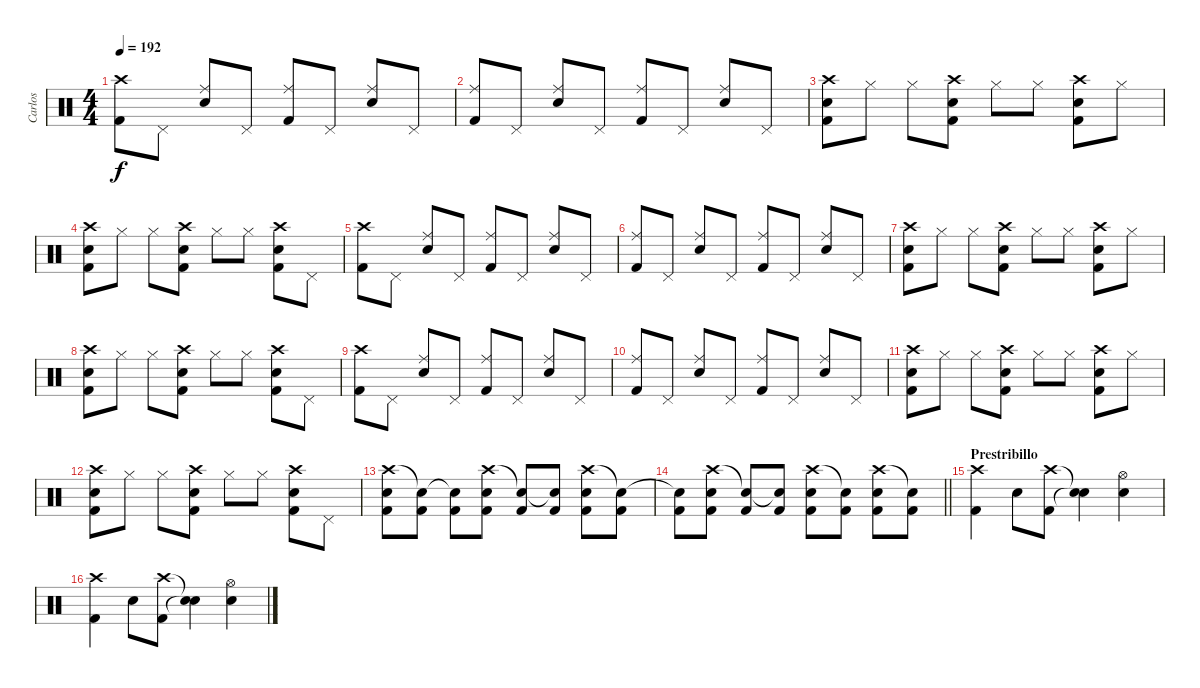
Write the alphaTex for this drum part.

\track ("Carlos" "Carlos") {instrument percussion}
\staff {score}
\articulation defaults
\ts (4 4)
\tempo 192
\clef neutral
\ks c
("Crash high (hit)" "Kick (hit) 2").8{dy f} "Pedal Hi-Hat (hit)".8 ("Ride (middle)" "Snare (hit) 2").8 "Pedal Hi-Hat (hit)".8 ("Ride (middle)" "Kick (hit) 2").8 "Pedal Hi-Hat (hit)".8 ("Ride (middle)" "Snare (hit) 2").8 "Pedal Hi-Hat (hit)".8 |
("Ride (middle)" "Kick (hit) 2").8 "Pedal Hi-Hat (hit)".8 ("Ride (middle)" "Snare (hit) 2").8 "Pedal Hi-Hat (hit)".8 ("Ride (middle)" "Kick (hit) 2").8 "Pedal Hi-Hat (hit)".8 ("Ride (middle)" "Snare (hit) 2").8 "Pedal Hi-Hat (hit)".8 |
("Crash high (hit)" "Kick (hit) 2" "Snare (hit) 2").8 "Hi-Hat (closed)".8 "Hi-Hat (closed)".8 ("Crash high (hit)" "Kick (hit) 2" "Snare (hit) 2").8 "Hi-Hat (closed)".8 "Hi-Hat (closed)".8 ("Crash high (hit)" "Kick (hit) 2" "Snare (hit) 2").8 "Hi-Hat (closed)".8 |
("Crash high (hit)" "Kick (hit) 2" "Snare (hit) 2").8 "Hi-Hat (closed)".8 "Hi-Hat (closed)".8 ("Crash high (hit)" "Kick (hit) 2" "Snare (hit) 2").8 "Hi-Hat (closed)".8 "Hi-Hat (closed)".8 ("Crash high (hit)" "Kick (hit) 2" "Snare (hit) 2").8 "Pedal Hi-Hat (hit)".8 |
("Crash high (hit)" "Kick (hit) 2").8 "Pedal Hi-Hat (hit)".8 ("Ride (middle)" "Snare (hit) 2").8 "Pedal Hi-Hat (hit)".8 ("Ride (middle)" "Kick (hit) 2").8 "Pedal Hi-Hat (hit)".8 ("Ride (middle)" "Snare (hit) 2").8 "Pedal Hi-Hat (hit)".8 |
("Ride (middle)" "Kick (hit) 2").8 "Pedal Hi-Hat (hit)".8 ("Ride (middle)" "Snare (hit) 2").8 "Pedal Hi-Hat (hit)".8 ("Ride (middle)" "Kick (hit) 2").8 "Pedal Hi-Hat (hit)".8 ("Ride (middle)" "Snare (hit) 2").8 "Pedal Hi-Hat (hit)".8 |
("Crash high (hit)" "Kick (hit) 2" "Snare (hit) 2").8 "Hi-Hat (closed)".8 "Hi-Hat (closed)".8 ("Crash high (hit)" "Kick (hit) 2" "Snare (hit) 2").8 "Hi-Hat (closed)".8 "Hi-Hat (closed)".8 ("Crash high (hit)" "Kick (hit) 2" "Snare (hit) 2").8 "Hi-Hat (closed)".8 |
("Crash high (hit)" "Kick (hit) 2" "Snare (hit) 2").8 "Hi-Hat (closed)".8 "Hi-Hat (closed)".8 ("Crash high (hit)" "Kick (hit) 2" "Snare (hit) 2").8 "Hi-Hat (closed)".8 "Hi-Hat (closed)".8 ("Crash high (hit)" "Kick (hit) 2" "Snare (hit) 2").8 "Pedal Hi-Hat (hit)".8 |
("Crash high (hit)" "Kick (hit) 2").8 "Pedal Hi-Hat (hit)".8 ("Ride (middle)" "Snare (hit) 2").8 "Pedal Hi-Hat (hit)".8 ("Ride (middle)" "Kick (hit) 2").8 "Pedal Hi-Hat (hit)".8 ("Ride (middle)" "Snare (hit) 2").8 "Pedal Hi-Hat (hit)".8 |
("Ride (middle)" "Kick (hit) 2").8 "Pedal Hi-Hat (hit)".8 ("Ride (middle)" "Snare (hit) 2").8 "Pedal Hi-Hat (hit)".8 ("Ride (middle)" "Kick (hit) 2").8 "Pedal Hi-Hat (hit)".8 ("Ride (middle)" "Snare (hit) 2").8 "Pedal Hi-Hat (hit)".8 |
("Crash high (hit)" "Kick (hit) 2" "Snare (hit) 2").8 "Hi-Hat (closed)".8 "Hi-Hat (closed)".8 ("Crash high (hit)" "Kick (hit) 2" "Snare (hit) 2").8 "Hi-Hat (closed)".8 "Hi-Hat (closed)".8 ("Crash high (hit)" "Kick (hit) 2" "Snare (hit) 2").8 "Hi-Hat (closed)".8 |
("Crash high (hit)" "Kick (hit) 2" "Snare (hit) 2").8 "Hi-Hat (closed)".8 "Hi-Hat (closed)".8 ("Crash high (hit)" "Kick (hit) 2" "Snare (hit) 2").8 "Hi-Hat (closed)".8 "Hi-Hat (closed)".8 ("Crash high (hit)" "Kick (hit) 2" "Snare (hit) 2").8 "Pedal Hi-Hat (hit)".8 |
("Crash high (hit)" "Kick (hit) 2" "Snare (hit) 2").8 ("Snare (hit)"{t} "Kick (hit) 2").8 ("Snare (hit)"{t} "Kick (hit) 2").8 ("Crash high (hit)" "Kick (hit) 2" "Snare (hit) 2").8 ("Snare (hit)"{t} "Kick (hit) 2").8 ("Snare (hit)"{t} "Kick (hit) 2").8 ("Crash high (hit)" "Kick (hit) 2" "Snare (hit) 2").8 ("Snare (hit)"{t} "Kick (hit) 2").8 |
\barLineRight lightlight
("Snare (hit)"{t} "Kick (hit) 2").8 ("Crash high (hit)" "Kick (hit) 2" "Snare (hit) 2").8 ("Snare (hit)"{t} "Kick (hit) 2").8 ("Snare (hit)"{t} "Kick (hit) 2").8 ("Crash high (hit)" "Kick (hit) 2" "Snare (hit) 2").8 ("Snare (hit)"{t} "Kick (hit) 2").8 ("Crash high (hit)" "Kick (hit) 2" "Snare (hit) 2").8 ("Snare (hit)"{t} "Kick (hit) 2").8 |
\section ("" "Prestribillo")
("Crash high (hit)" "Kick (hit) 2").4 "Snare (hit) 2".8 ("Crash high (hit)" "Kick (hit) 2").8 ("Snare (hit)"{t} "Snare (hit)"{t}).4 ("Hi-Hat (open)" "Snare (hit) 2").4 |
("Crash high (hit)" "Kick (hit) 2").4 "Snare (hit) 2".8 ("Crash high (hit)" "Kick (hit) 2").8 ("Snare (hit)"{t} "Snare (hit)"{t}).4 ("Hi-Hat (open)" "Snare (hit) 2").4
